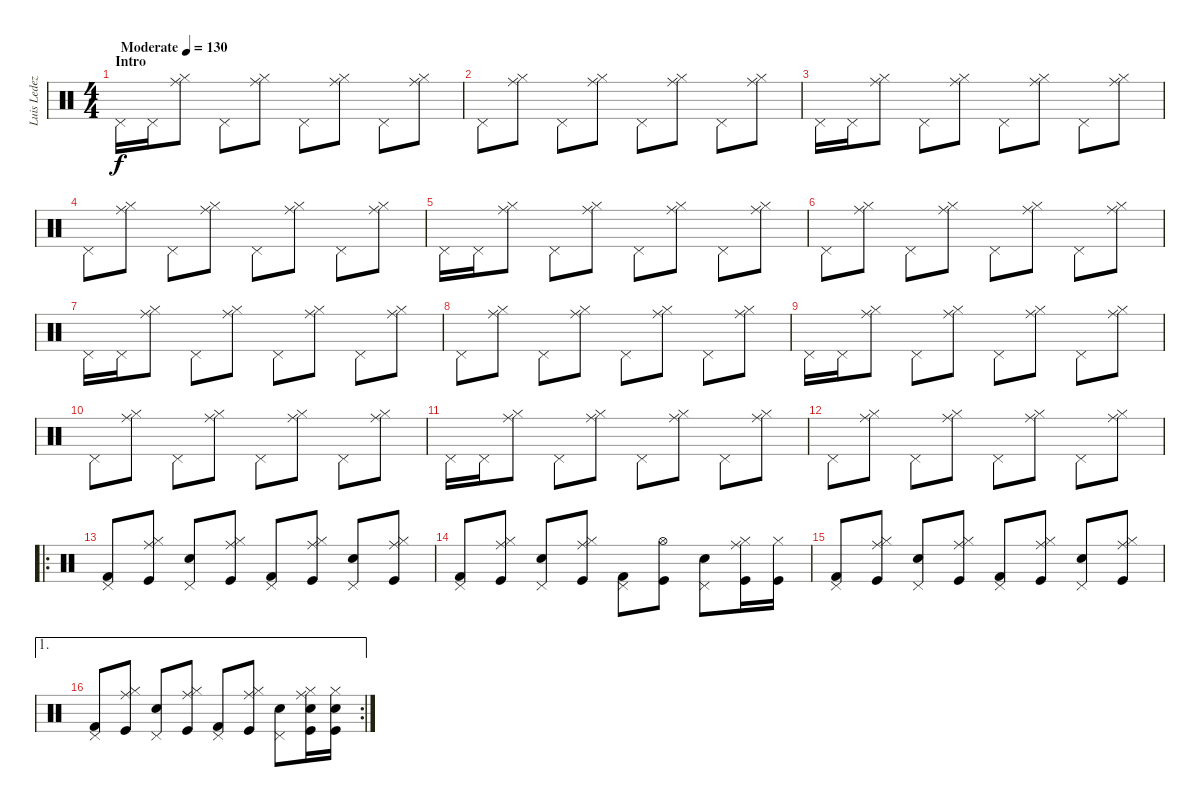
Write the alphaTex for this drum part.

\track ("Luis Ledezma (bateria)" "Luis Ledez") {instrument percussion}
\staff {score}
\articulation defaults
\ts (4 4)
\section ("" "Intro")
\tempo (130 "Moderate")
\clef neutral
\ks c "Pedal Hi-Hat (hit)".16{dy f} "Pedal Hi-Hat (hit)".16
("Ride (middle)" "Hi-Hat (closed)").8 "Pedal Hi-Hat (hit)".8 ("Ride (middle)" "Hi-Hat (closed)").8 "Pedal Hi-Hat (hit)".8 ("Ride (middle)" "Hi-Hat (closed)").8 "Pedal Hi-Hat (hit)".8 ("Ride (middle)" "Hi-Hat (closed)").8 |
"Pedal Hi-Hat (hit)".8 ("Ride (middle)" "Hi-Hat (closed)").8 "Pedal Hi-Hat (hit)".8 ("Ride (middle)" "Hi-Hat (closed)").8 "Pedal Hi-Hat (hit)".8 ("Ride (middle)" "Hi-Hat (closed)").8 "Pedal Hi-Hat (hit)".8 ("Ride (middle)" "Hi-Hat (closed)").8 |
"Pedal Hi-Hat (hit)".16 "Pedal Hi-Hat (hit)".16 ("Ride (middle)" "Hi-Hat (closed)").8 "Pedal Hi-Hat (hit)".8 ("Ride (middle)" "Hi-Hat (closed)").8 "Pedal Hi-Hat (hit)".8 ("Ride (middle)" "Hi-Hat (closed)").8 "Pedal Hi-Hat (hit)".8 ("Ride (middle)" "Hi-Hat (closed)").8 |
"Pedal Hi-Hat (hit)".8 ("Ride (middle)" "Hi-Hat (closed)").8 "Pedal Hi-Hat (hit)".8 ("Ride (middle)" "Hi-Hat (closed)").8 "Pedal Hi-Hat (hit)".8 ("Ride (middle)" "Hi-Hat (closed)").8 "Pedal Hi-Hat (hit)".8 ("Ride (middle)" "Hi-Hat (closed)").8 |
"Pedal Hi-Hat (hit)".16 "Pedal Hi-Hat (hit)".16 ("Ride (middle)" "Hi-Hat (closed)").8 "Pedal Hi-Hat (hit)".8 ("Ride (middle)" "Hi-Hat (closed)").8 "Pedal Hi-Hat (hit)".8 ("Ride (middle)" "Hi-Hat (closed)").8 "Pedal Hi-Hat (hit)".8 ("Ride (middle)" "Hi-Hat (closed)").8 |
"Pedal Hi-Hat (hit)".8 ("Ride (middle)" "Hi-Hat (closed)").8 "Pedal Hi-Hat (hit)".8 ("Ride (middle)" "Hi-Hat (closed)").8 "Pedal Hi-Hat (hit)".8 ("Ride (middle)" "Hi-Hat (closed)").8 "Pedal Hi-Hat (hit)".8 ("Ride (middle)" "Hi-Hat (closed)").8 |
"Pedal Hi-Hat (hit)".16 "Pedal Hi-Hat (hit)".16 ("Ride (middle)" "Hi-Hat (closed)").8 "Pedal Hi-Hat (hit)".8 ("Ride (middle)" "Hi-Hat (closed)").8 "Pedal Hi-Hat (hit)".8 ("Ride (middle)" "Hi-Hat (closed)").8 "Pedal Hi-Hat (hit)".8 ("Ride (middle)" "Hi-Hat (closed)").8 |
"Pedal Hi-Hat (hit)".8 ("Ride (middle)" "Hi-Hat (closed)").8 "Pedal Hi-Hat (hit)".8 ("Ride (middle)" "Hi-Hat (closed)").8 "Pedal Hi-Hat (hit)".8 ("Ride (middle)" "Hi-Hat (closed)").8 "Pedal Hi-Hat (hit)".8 ("Ride (middle)" "Hi-Hat (closed)").8 |
"Pedal Hi-Hat (hit)".16 "Pedal Hi-Hat (hit)".16 ("Ride (middle)" "Hi-Hat (closed)").8 "Pedal Hi-Hat (hit)".8 ("Ride (middle)" "Hi-Hat (closed)").8 "Pedal Hi-Hat (hit)".8 ("Ride (middle)" "Hi-Hat (closed)").8 "Pedal Hi-Hat (hit)".8 ("Ride (middle)" "Hi-Hat (closed)").8 |
"Pedal Hi-Hat (hit)".8 ("Ride (middle)" "Hi-Hat (closed)").8 "Pedal Hi-Hat (hit)".8 ("Ride (middle)" "Hi-Hat (closed)").8 "Pedal Hi-Hat (hit)".8 ("Ride (middle)" "Hi-Hat (closed)").8 "Pedal Hi-Hat (hit)".8 ("Ride (middle)" "Hi-Hat (closed)").8 |
"Pedal Hi-Hat (hit)".16 "Pedal Hi-Hat (hit)".16 ("Ride (middle)" "Hi-Hat (closed)").8 "Pedal Hi-Hat (hit)".8 ("Ride (middle)" "Hi-Hat (closed)").8 "Pedal Hi-Hat (hit)".8 ("Ride (middle)" "Hi-Hat (closed)").8 "Pedal Hi-Hat (hit)".8 ("Ride (middle)" "Hi-Hat (closed)").8 |
"Pedal Hi-Hat (hit)".8 ("Ride (middle)" "Hi-Hat (closed)").8 "Pedal Hi-Hat (hit)".8 ("Ride (middle)" "Hi-Hat (closed)").8 "Pedal Hi-Hat (hit)".8 ("Ride (middle)" "Hi-Hat (closed)").8 "Pedal Hi-Hat (hit)".8 ("Ride (middle)" "Hi-Hat (closed)").8 |
\ro
("Pedal Hi-Hat (hit)" "Kick (hit) 2").8 ("Ride (middle)" "Hi-Hat (closed)" "Kick (hit)").8 ("Pedal Hi-Hat (hit)" "Snare (hit) 2").8 ("Ride (middle)" "Hi-Hat (closed)" "Kick (hit)").8 ("Pedal Hi-Hat (hit)" "Kick (hit) 2").8 ("Ride (middle)" "Hi-Hat (closed)" "Kick (hit)").8 ("Pedal Hi-Hat (hit)" "Snare (hit) 2").8 ("Ride (middle)" "Hi-Hat (closed)" "Kick (hit)").8 |
("Pedal Hi-Hat (hit)" "Kick (hit) 2").8 ("Ride (middle)" "Hi-Hat (closed)" "Kick (hit)").8 ("Pedal Hi-Hat (hit)" "Snare (hit) 2").8 ("Ride (middle)" "Hi-Hat (closed)" "Kick (hit)").8 ("Pedal Hi-Hat (hit)" "Kick (hit) 2").8 ("Hi-Hat (open)" "Kick (hit)").8 ("Pedal Hi-Hat (hit)" "Snare (hit) 2").8 ("Ride (middle)" "Hi-Hat (closed)" "Kick (hit)").16 ("Hi-Hat (closed)" "Kick (hit)").16 |
("Pedal Hi-Hat (hit)" "Kick (hit) 2").8 ("Ride (middle)" "Hi-Hat (closed)" "Kick (hit)").8 ("Pedal Hi-Hat (hit)" "Snare (hit) 2").8 ("Ride (middle)" "Hi-Hat (closed)" "Kick (hit)").8 ("Pedal Hi-Hat (hit)" "Kick (hit) 2").8 ("Ride (middle)" "Hi-Hat (closed)" "Kick (hit)").8 ("Pedal Hi-Hat (hit)" "Snare (hit) 2").8 ("Ride (middle)" "Hi-Hat (closed)" "Kick (hit)").8 |
\ae 1
\rc 2
("Pedal Hi-Hat (hit)" "Kick (hit) 2").8 ("Ride (middle)" "Hi-Hat (closed)" "Kick (hit)").8 ("Pedal Hi-Hat (hit)" "Snare (hit) 2").8 ("Ride (middle)" "Hi-Hat (closed)" "Kick (hit)").8 ("Pedal Hi-Hat (hit)" "Kick (hit) 2").8 ("Ride (middle)" "Hi-Hat (closed)" "Kick (hit)").8 ("Pedal Hi-Hat (hit)" "Snare (hit) 2").8 ("Ride (middle)" "Hi-Hat (closed)" "Snare (hit) 2" "Kick (hit)").16 ("Hi-Hat (closed)" "Snare (hit) 2" "Kick (hit)").16
